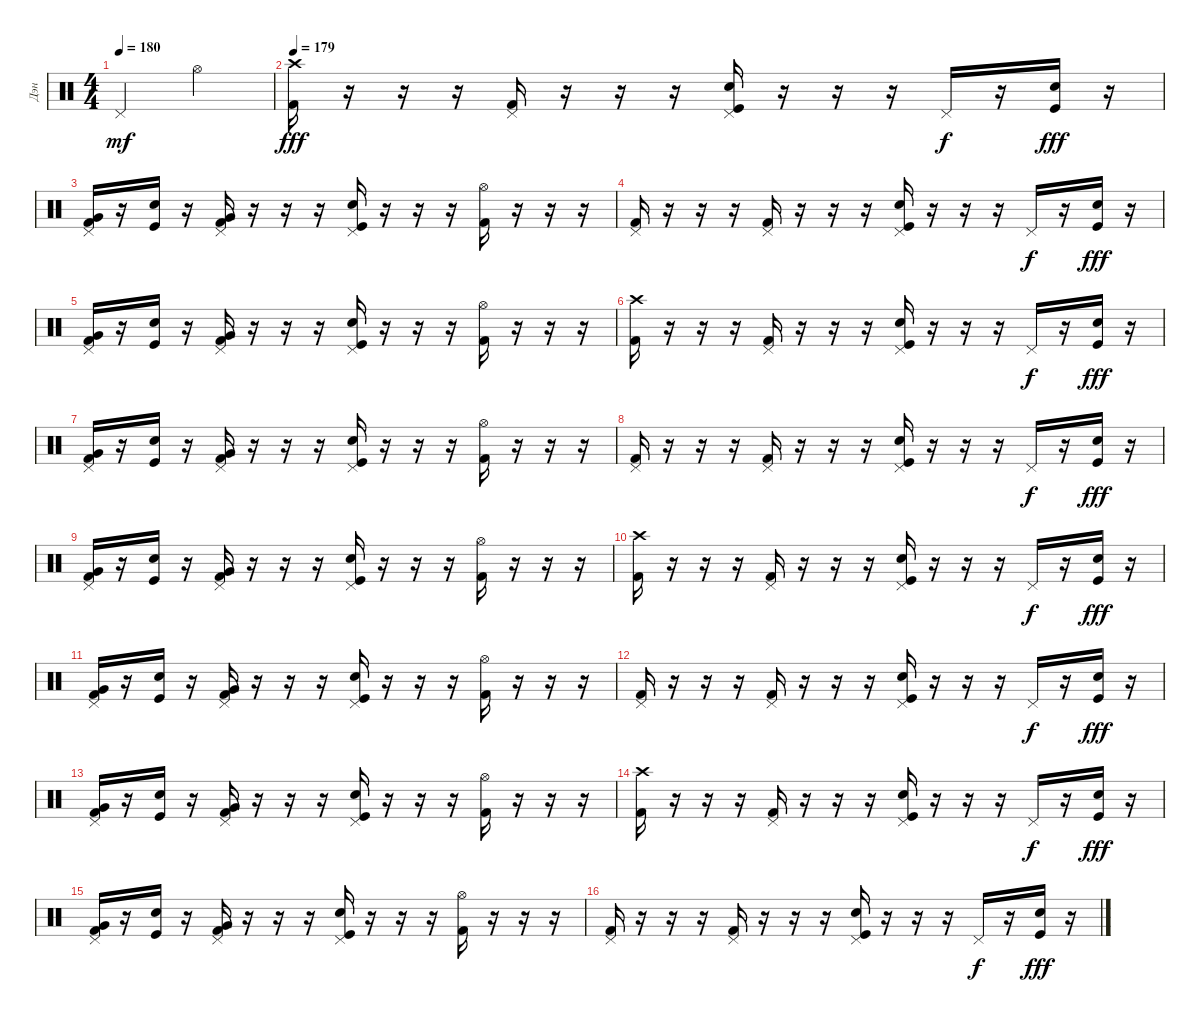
\track ("Дэн" "Дэн") {instrument percussion}
\staff {score}
\articulation defaults
\ts (4 4)
\tempo 180
\clef neutral
\ks c "Pedal Hi-Hat (hit)".2{dy mf} "Hi-Hat (open)".2
|
\tempo 179
("Crash high (hit)" "Kick (hit) 2").16{dy fff} r.16 r.16 r.16 ("Pedal Hi-Hat (hit)" "Kick (hit) 2").16 r.16 r.16 r.16 ("Pedal Hi-Hat (hit)" "Electric Snare (hit)" "Kick (hit)").16 r.16 r.16 r.16 "Pedal Hi-Hat (hit)".16{dy f} r.16 ("Electric Snare (hit)" "Kick (hit)").16{dy fff} r.16 |
("Pedal Hi-Hat (hit)" "Very Low Tom (hit)" "Kick (hit) 2").16 r.16 ("Electric Snare (hit)" "Kick (hit)").16 r.16 ("Pedal Hi-Hat (hit)" "Very Low Tom (hit)" "Kick (hit) 2").16 r.16 r.16 r.16 ("Pedal Hi-Hat (hit)" "Electric Snare (hit)" "Kick (hit)").16 r.16 r.16 r.16 ("Hi-Hat (open)" "Kick (hit) 2").16 r.16 r.16 r.16 |
("Pedal Hi-Hat (hit)" "Kick (hit) 2").16 r.16 r.16 r.16 ("Pedal Hi-Hat (hit)" "Kick (hit) 2").16 r.16 r.16 r.16 ("Pedal Hi-Hat (hit)" "Electric Snare (hit)" "Kick (hit)").16 r.16 r.16 r.16 "Pedal Hi-Hat (hit)".16{dy f} r.16 ("Electric Snare (hit)" "Kick (hit)").16{dy fff} r.16 |
("Pedal Hi-Hat (hit)" "Very Low Tom (hit)" "Kick (hit) 2").16 r.16 ("Electric Snare (hit)" "Kick (hit)").16 r.16 ("Pedal Hi-Hat (hit)" "Very Low Tom (hit)" "Kick (hit) 2").16 r.16 r.16 r.16 ("Pedal Hi-Hat (hit)" "Electric Snare (hit)" "Kick (hit)").16 r.16 r.16 r.16 ("Hi-Hat (open)" "Kick (hit) 2").16 r.16 r.16 r.16 |
("Crash high (hit)" "Kick (hit) 2").16 r.16 r.16 r.16 ("Pedal Hi-Hat (hit)" "Kick (hit) 2").16 r.16 r.16 r.16 ("Pedal Hi-Hat (hit)" "Electric Snare (hit)" "Kick (hit)").16 r.16 r.16 r.16 "Pedal Hi-Hat (hit)".16{dy f} r.16 ("Electric Snare (hit)" "Kick (hit)").16{dy fff} r.16 |
("Pedal Hi-Hat (hit)" "Very Low Tom (hit)" "Kick (hit) 2").16 r.16 ("Electric Snare (hit)" "Kick (hit)").16 r.16 ("Pedal Hi-Hat (hit)" "Very Low Tom (hit)" "Kick (hit) 2").16 r.16 r.16 r.16 ("Pedal Hi-Hat (hit)" "Electric Snare (hit)" "Kick (hit)").16 r.16 r.16 r.16 ("Hi-Hat (open)" "Kick (hit) 2").16 r.16 r.16 r.16 |
("Pedal Hi-Hat (hit)" "Kick (hit) 2").16 r.16 r.16 r.16 ("Pedal Hi-Hat (hit)" "Kick (hit) 2").16 r.16 r.16 r.16 ("Pedal Hi-Hat (hit)" "Electric Snare (hit)" "Kick (hit)").16 r.16 r.16 r.16 "Pedal Hi-Hat (hit)".16{dy f} r.16 ("Electric Snare (hit)" "Kick (hit)").16{dy fff} r.16 |
("Pedal Hi-Hat (hit)" "Very Low Tom (hit)" "Kick (hit) 2").16 r.16 ("Electric Snare (hit)" "Kick (hit)").16 r.16 ("Pedal Hi-Hat (hit)" "Very Low Tom (hit)" "Kick (hit) 2").16 r.16 r.16 r.16 ("Pedal Hi-Hat (hit)" "Electric Snare (hit)" "Kick (hit)").16 r.16 r.16 r.16 ("Hi-Hat (open)" "Kick (hit) 2").16 r.16 r.16 r.16 |
("Crash high (hit)" "Kick (hit) 2").16 r.16 r.16 r.16 ("Pedal Hi-Hat (hit)" "Kick (hit) 2").16 r.16 r.16 r.16 ("Pedal Hi-Hat (hit)" "Electric Snare (hit)" "Kick (hit)").16 r.16 r.16 r.16 "Pedal Hi-Hat (hit)".16{dy f} r.16 ("Electric Snare (hit)" "Kick (hit)").16{dy fff} r.16 |
("Pedal Hi-Hat (hit)" "Very Low Tom (hit)" "Kick (hit) 2").16 r.16 ("Electric Snare (hit)" "Kick (hit)").16 r.16 ("Pedal Hi-Hat (hit)" "Very Low Tom (hit)" "Kick (hit) 2").16 r.16 r.16 r.16 ("Pedal Hi-Hat (hit)" "Electric Snare (hit)" "Kick (hit)").16 r.16 r.16 r.16 ("Hi-Hat (open)" "Kick (hit) 2").16 r.16 r.16 r.16 |
("Pedal Hi-Hat (hit)" "Kick (hit) 2").16 r.16 r.16 r.16 ("Pedal Hi-Hat (hit)" "Kick (hit) 2").16 r.16 r.16 r.16 ("Pedal Hi-Hat (hit)" "Electric Snare (hit)" "Kick (hit)").16 r.16 r.16 r.16 "Pedal Hi-Hat (hit)".16{dy f} r.16 ("Electric Snare (hit)" "Kick (hit)").16{dy fff} r.16 |
("Pedal Hi-Hat (hit)" "Very Low Tom (hit)" "Kick (hit) 2").16 r.16 ("Electric Snare (hit)" "Kick (hit)").16 r.16 ("Pedal Hi-Hat (hit)" "Very Low Tom (hit)" "Kick (hit) 2").16 r.16 r.16 r.16 ("Pedal Hi-Hat (hit)" "Electric Snare (hit)" "Kick (hit)").16 r.16 r.16 r.16 ("Hi-Hat (open)" "Kick (hit) 2").16 r.16 r.16 r.16 |
("Crash high (hit)" "Kick (hit) 2").16 r.16 r.16 r.16 ("Pedal Hi-Hat (hit)" "Kick (hit) 2").16 r.16 r.16 r.16 ("Pedal Hi-Hat (hit)" "Electric Snare (hit)" "Kick (hit)").16 r.16 r.16 r.16 "Pedal Hi-Hat (hit)".16{dy f} r.16 ("Electric Snare (hit)" "Kick (hit)").16{dy fff} r.16 |
("Pedal Hi-Hat (hit)" "Very Low Tom (hit)" "Kick (hit) 2").16 r.16 ("Electric Snare (hit)" "Kick (hit)").16 r.16 ("Pedal Hi-Hat (hit)" "Very Low Tom (hit)" "Kick (hit) 2").16 r.16 r.16 r.16 ("Pedal Hi-Hat (hit)" "Electric Snare (hit)" "Kick (hit)").16 r.16 r.16 r.16 ("Hi-Hat (open)" "Kick (hit) 2").16 r.16 r.16 r.16 |
("Pedal Hi-Hat (hit)" "Kick (hit) 2").16 r.16 r.16 r.16 ("Pedal Hi-Hat (hit)" "Kick (hit) 2").16 r.16 r.16 r.16 ("Pedal Hi-Hat (hit)" "Electric Snare (hit)" "Kick (hit)").16 r.16 r.16 r.16 "Pedal Hi-Hat (hit)".16{dy f} r.16 ("Electric Snare (hit)" "Kick (hit)").16{dy fff} r.16
